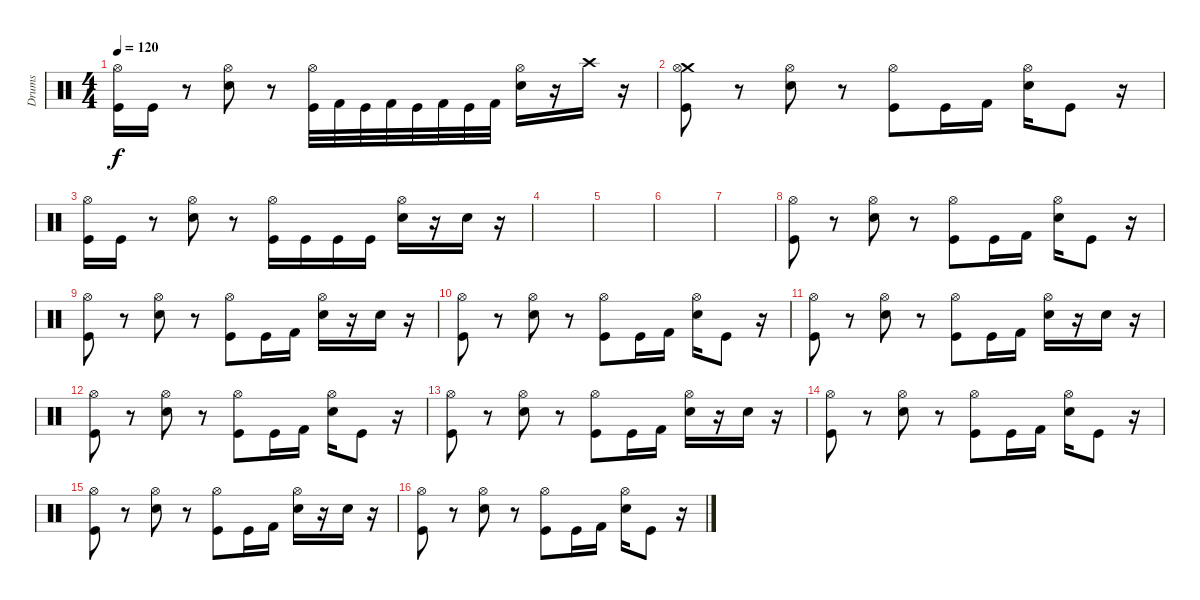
\track ("Drums" "Drums") {instrument percussion}
\staff {score}
\articulation defaults
\ts (4 4)
\tempo 120
\clef neutral
\ks c
("Hi-Hat (open)" "Kick (hit)").16{dy f} "Kick (hit)".16 r.8 ("Hi-Hat (open)" "Snare (hit) 2").8 r.8 ("Hi-Hat (open)" "Kick (hit)").32 "Kick (hit) 2".32 "Kick (hit)".32 "Kick (hit) 2".32 "Kick (hit)".32 "Kick (hit) 2".32 "Kick (hit)".32 "Kick (hit) 2".32 ("Hi-Hat (open)" "Snare (hit) 2").16 r.16 "Crash high (hit)".16 r.16 |
("Crash medium (hit)" "Hi-Hat (open)" "Kick (hit)").8 r.8 ("Hi-Hat (open)" "Snare (hit) 2").8 r.8 ("Hi-Hat (open)" "Kick (hit)").8 "Kick (hit)".16 "Kick (hit) 2".16 ("Hi-Hat (open)" "Snare (hit) 2").16 "Kick (hit)".8 r.16 |
("Hi-Hat (open)" "Kick (hit)").16 "Kick (hit)".16 r.8 ("Hi-Hat (open)" "Snare (hit) 2").8 r.8 ("Hi-Hat (open)" "Kick (hit)").16 "Kick (hit)".16 "Kick (hit)".16 "Kick (hit)".16 ("Hi-Hat (open)" "Snare (hit) 2").16 r.16 "Snare (hit) 2".16 r.16 |
|
|
|
|
("Hi-Hat (open)" "Kick (hit)").8 r.8 ("Hi-Hat (open)" "Snare (hit) 2").8 r.8 ("Hi-Hat (open)" "Kick (hit)").8 "Kick (hit)".16 "Kick (hit) 2".16 ("Hi-Hat (open)" "Snare (hit) 2").16 "Kick (hit)".8 r.16 |
("Hi-Hat (open)" "Kick (hit)").8 r.8 ("Hi-Hat (open)" "Snare (hit) 2").8 r.8 ("Hi-Hat (open)" "Kick (hit)").8 "Kick (hit)".16 "Kick (hit) 2".16 ("Hi-Hat (open)" "Snare (hit) 2").16 r.16 "Snare (hit) 2".16 r.16 |
("Hi-Hat (open)" "Kick (hit)").8 r.8 ("Hi-Hat (open)" "Snare (hit) 2").8 r.8 ("Hi-Hat (open)" "Kick (hit)").8 "Kick (hit)".16 "Kick (hit) 2".16 ("Hi-Hat (open)" "Snare (hit) 2").16 "Kick (hit)".8 r.16 |
("Hi-Hat (open)" "Kick (hit)").8 r.8 ("Hi-Hat (open)" "Snare (hit) 2").8 r.8 ("Hi-Hat (open)" "Kick (hit)").8 "Kick (hit)".16 "Kick (hit) 2".16 ("Hi-Hat (open)" "Snare (hit) 2").16 r.16 "Snare (hit) 2".16 r.16 |
("Hi-Hat (open)" "Kick (hit)").8 r.8 ("Hi-Hat (open)" "Snare (hit) 2").8 r.8 ("Hi-Hat (open)" "Kick (hit)").8 "Kick (hit)".16 "Kick (hit) 2".16 ("Hi-Hat (open)" "Snare (hit) 2").16 "Kick (hit)".8 r.16 |
("Hi-Hat (open)" "Kick (hit)").8 r.8 ("Hi-Hat (open)" "Snare (hit) 2").8 r.8 ("Hi-Hat (open)" "Kick (hit)").8 "Kick (hit)".16 "Kick (hit) 2".16 ("Hi-Hat (open)" "Snare (hit) 2").16 r.16 "Snare (hit) 2".16 r.16 |
("Hi-Hat (open)" "Kick (hit)").8 r.8 ("Hi-Hat (open)" "Snare (hit) 2").8 r.8 ("Hi-Hat (open)" "Kick (hit)").8 "Kick (hit)".16 "Kick (hit) 2".16 ("Hi-Hat (open)" "Snare (hit) 2").16 "Kick (hit)".8 r.16 |
("Hi-Hat (open)" "Kick (hit)").8 r.8 ("Hi-Hat (open)" "Snare (hit) 2").8 r.8 ("Hi-Hat (open)" "Kick (hit)").8 "Kick (hit)".16 "Kick (hit) 2".16 ("Hi-Hat (open)" "Snare (hit) 2").16 r.16 "Snare (hit) 2".16 r.16 |
("Hi-Hat (open)" "Kick (hit)").8 r.8 ("Hi-Hat (open)" "Snare (hit) 2").8 r.8 ("Hi-Hat (open)" "Kick (hit)").8 "Kick (hit)".16 "Kick (hit) 2".16 ("Hi-Hat (open)" "Snare (hit) 2").16 "Kick (hit)".8 r.16
